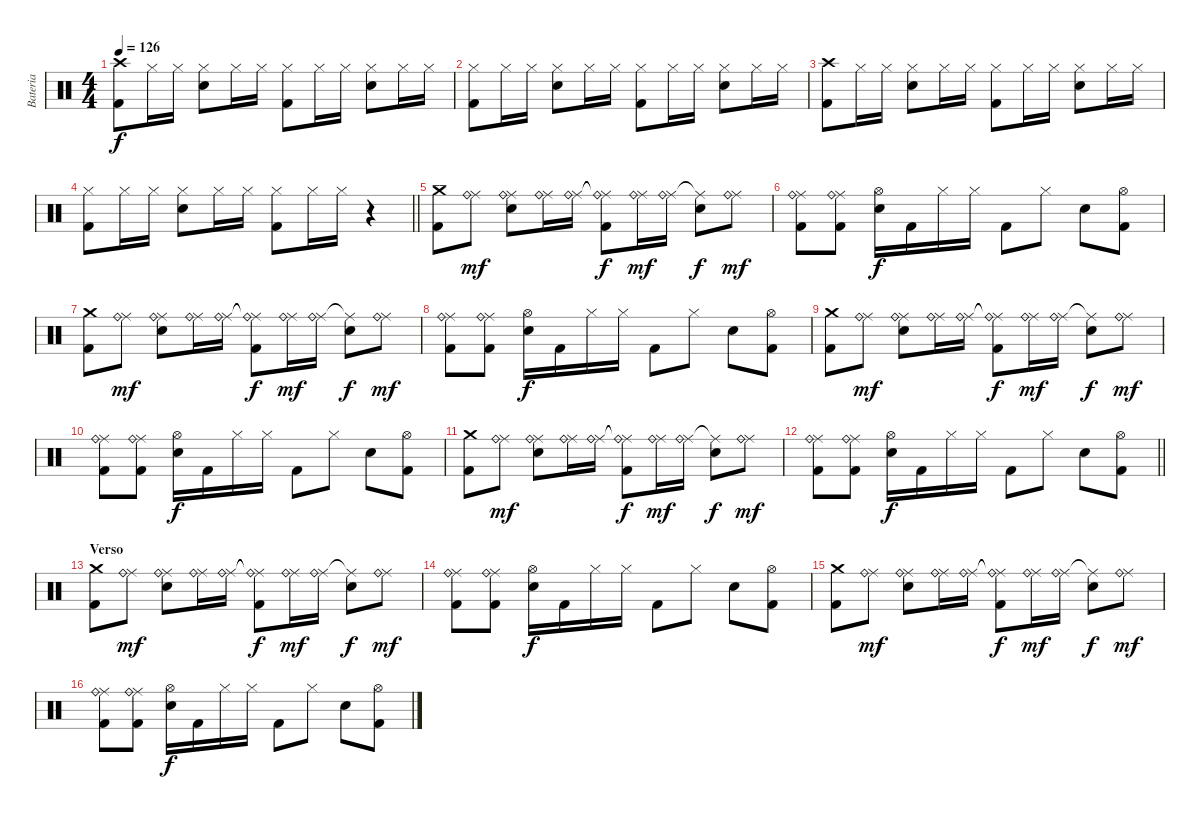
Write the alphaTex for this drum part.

\track ("Bateria" "Bateria") {instrument percussion}
\staff {score}
\articulation defaults
\ts (4 4)
\tempo 126
\clef neutral
\ks c
("Crash high (hit)" "Kick (hit) 2").8{dy f} "Hi-Hat (closed)".16 "Hi-Hat (closed)".16 ("Hi-Hat (closed)" "Electric Snare (hit)").8 "Hi-Hat (closed)".16 "Hi-Hat (closed)".16 ("Hi-Hat (closed)" "Kick (hit) 2").8 "Hi-Hat (closed)".16 "Hi-Hat (closed)".16 ("Hi-Hat (closed)" "Electric Snare (hit)").8 "Hi-Hat (closed)".16 "Hi-Hat (closed)".16 |
("Hi-Hat (closed)" "Kick (hit) 2").8 "Hi-Hat (closed)".16 "Hi-Hat (closed)".16 ("Hi-Hat (closed)" "Electric Snare (hit)").8 "Hi-Hat (closed)".16 "Hi-Hat (closed)".16 ("Hi-Hat (closed)" "Kick (hit) 2").8 "Hi-Hat (closed)".16 "Hi-Hat (closed)".16 ("Hi-Hat (closed)" "Electric Snare (hit)").8 "Hi-Hat (closed)".16 "Hi-Hat (closed)".16 |
("Crash high (hit)" "Kick (hit) 2").8 "Hi-Hat (closed)".16 "Hi-Hat (closed)".16 ("Hi-Hat (closed)" "Electric Snare (hit)").8 "Hi-Hat (closed)".16 "Hi-Hat (closed)".16 ("Hi-Hat (closed)" "Kick (hit) 2").8 "Hi-Hat (closed)".16 "Hi-Hat (closed)".16 ("Hi-Hat (closed)" "Electric Snare (hit)").8 "Hi-Hat (closed)".16 "Hi-Hat (closed)".16 |
\barLineRight lightlight
("Hi-Hat (closed)" "Kick (hit) 2").8 "Hi-Hat (closed)".16 "Hi-Hat (closed)".16 ("Hi-Hat (closed)" "Electric Snare (hit)").8 "Hi-Hat (closed)".16 "Hi-Hat (closed)".16 ("Hi-Hat (closed)" "Kick (hit) 2").8 "Hi-Hat (closed)".16 "Hi-Hat (closed)".16 r.4 |
\section ("" "__")
("Crash medium (hit)" "Kick (hit) 2").8 ("Ride (middle)" "Ride (bell)").8{dy mf} ("Ride (middle)" "Ride (bell)" "Electric Snare (hit)").8 ("Ride (middle)" "Ride (bell)").16 ("Ride (middle)" "Ride (bell)").16 ("Ride (middle)"{t} "Ride (bell)"{t} "Kick (hit) 2").8{dy f} ("Ride (middle)" "Ride (bell)").16{dy mf} ("Ride (middle)" "Ride (bell)").16 ("Ride (middle)"{t} "Electric Snare (hit)").8{dy f} ("Ride (middle)" "Ride (bell)").8{dy mf} |
("Ride (middle)" "Ride (bell)" "Kick (hit) 2").8 ("Ride (middle)" "Ride (bell)" "Kick (hit) 2").8 ("Hi-Hat (open)" "Electric Snare (hit)").16{dy f} "Kick (hit) 2".16 "Hi-Hat (closed)".16 "Hi-Hat (closed)".16 "Kick (hit) 2".8 "Hi-Hat (closed)".8 "Electric Snare (hit)".8 ("Hi-Hat (open)" "Kick (hit) 2").8 |
("Crash medium (hit)" "Kick (hit) 2").8 ("Ride (middle)" "Ride (bell)").8{dy mf} ("Ride (middle)" "Ride (bell)" "Electric Snare (hit)").8 ("Ride (middle)" "Ride (bell)").16 ("Ride (middle)" "Ride (bell)").16 ("Ride (middle)"{t} "Ride (bell)"{t} "Kick (hit) 2").8{dy f} ("Ride (middle)" "Ride (bell)").16{dy mf} ("Ride (middle)" "Ride (bell)").16 ("Ride (middle)"{t} "Electric Snare (hit)").8{dy f} ("Ride (middle)" "Ride (bell)").8{dy mf} |
("Ride (middle)" "Ride (bell)" "Kick (hit) 2").8 ("Ride (middle)" "Ride (bell)" "Kick (hit) 2").8 ("Hi-Hat (open)" "Electric Snare (hit)").16{dy f} "Kick (hit) 2".16 "Hi-Hat (closed)".16 "Hi-Hat (closed)".16 "Kick (hit) 2".8 "Hi-Hat (closed)".8 "Electric Snare (hit)".8 ("Hi-Hat (open)" "Kick (hit) 2").8 |
("Crash medium (hit)" "Kick (hit) 2").8 ("Ride (middle)" "Ride (bell)").8{dy mf} ("Ride (middle)" "Ride (bell)" "Electric Snare (hit)").8 ("Ride (middle)" "Ride (bell)").16 ("Ride (middle)" "Ride (bell)").16 ("Ride (middle)"{t} "Ride (bell)"{t} "Kick (hit) 2").8{dy f} ("Ride (middle)" "Ride (bell)").16{dy mf} ("Ride (middle)" "Ride (bell)").16 ("Ride (middle)"{t} "Electric Snare (hit)").8{dy f} ("Ride (middle)" "Ride (bell)").8{dy mf} |
("Ride (middle)" "Ride (bell)" "Kick (hit) 2").8 ("Ride (middle)" "Ride (bell)" "Kick (hit) 2").8 ("Hi-Hat (open)" "Electric Snare (hit)").16{dy f} "Kick (hit) 2".16 "Hi-Hat (closed)".16 "Hi-Hat (closed)".16 "Kick (hit) 2".8 "Hi-Hat (closed)".8 "Electric Snare (hit)".8 ("Hi-Hat (open)" "Kick (hit) 2").8 |
("Crash medium (hit)" "Kick (hit) 2").8 ("Ride (middle)" "Ride (bell)").8{dy mf} ("Ride (middle)" "Ride (bell)" "Electric Snare (hit)").8 ("Ride (middle)" "Ride (bell)").16 ("Ride (middle)" "Ride (bell)").16 ("Ride (middle)"{t} "Ride (bell)"{t} "Kick (hit) 2").8{dy f} ("Ride (middle)" "Ride (bell)").16{dy mf} ("Ride (middle)" "Ride (bell)").16 ("Ride (middle)"{t} "Electric Snare (hit)").8{dy f} ("Ride (middle)" "Ride (bell)").8{dy mf} |
\barLineRight lightlight
("Ride (middle)" "Ride (bell)" "Kick (hit) 2").8 ("Ride (middle)" "Ride (bell)" "Kick (hit) 2").8 ("Hi-Hat (open)" "Electric Snare (hit)").16{dy f} "Kick (hit) 2".16 "Hi-Hat (closed)".16 "Hi-Hat (closed)".16 "Kick (hit) 2".8 "Hi-Hat (closed)".8 "Electric Snare (hit)".8 ("Hi-Hat (open)" "Kick (hit) 2").8 |
\section ("" "Verso")
("Crash medium (hit)" "Kick (hit) 2").8 ("Ride (middle)" "Ride (bell)").8{dy mf} ("Ride (middle)" "Ride (bell)" "Electric Snare (hit)").8 ("Ride (middle)" "Ride (bell)").16 ("Ride (middle)" "Ride (bell)").16 ("Ride (middle)"{t} "Ride (bell)"{t} "Kick (hit) 2").8{dy f} ("Ride (middle)" "Ride (bell)").16{dy mf} ("Ride (middle)" "Ride (bell)").16 ("Ride (middle)"{t} "Electric Snare (hit)").8{dy f} ("Ride (middle)" "Ride (bell)").8{dy mf} |
("Ride (middle)" "Ride (bell)" "Kick (hit) 2").8 ("Ride (middle)" "Ride (bell)" "Kick (hit) 2").8 ("Hi-Hat (open)" "Electric Snare (hit)").16{dy f} "Kick (hit) 2".16 "Hi-Hat (closed)".16 "Hi-Hat (closed)".16 "Kick (hit) 2".8 "Hi-Hat (closed)".8 "Electric Snare (hit)".8 ("Hi-Hat (open)" "Kick (hit) 2").8 |
("Crash medium (hit)" "Kick (hit) 2").8 ("Ride (middle)" "Ride (bell)").8{dy mf} ("Ride (middle)" "Ride (bell)" "Electric Snare (hit)").8 ("Ride (middle)" "Ride (bell)").16 ("Ride (middle)" "Ride (bell)").16 ("Ride (middle)"{t} "Ride (bell)"{t} "Kick (hit) 2").8{dy f} ("Ride (middle)" "Ride (bell)").16{dy mf} ("Ride (middle)" "Ride (bell)").16 ("Ride (middle)"{t} "Electric Snare (hit)").8{dy f} ("Ride (middle)" "Ride (bell)").8{dy mf} |
("Ride (middle)" "Ride (bell)" "Kick (hit) 2").8 ("Ride (middle)" "Ride (bell)" "Kick (hit) 2").8 ("Hi-Hat (open)" "Electric Snare (hit)").16{dy f} "Kick (hit) 2".16 "Hi-Hat (closed)".16 "Hi-Hat (closed)".16 "Kick (hit) 2".8 "Hi-Hat (closed)".8 "Electric Snare (hit)".8 ("Hi-Hat (open)" "Kick (hit) 2").8
